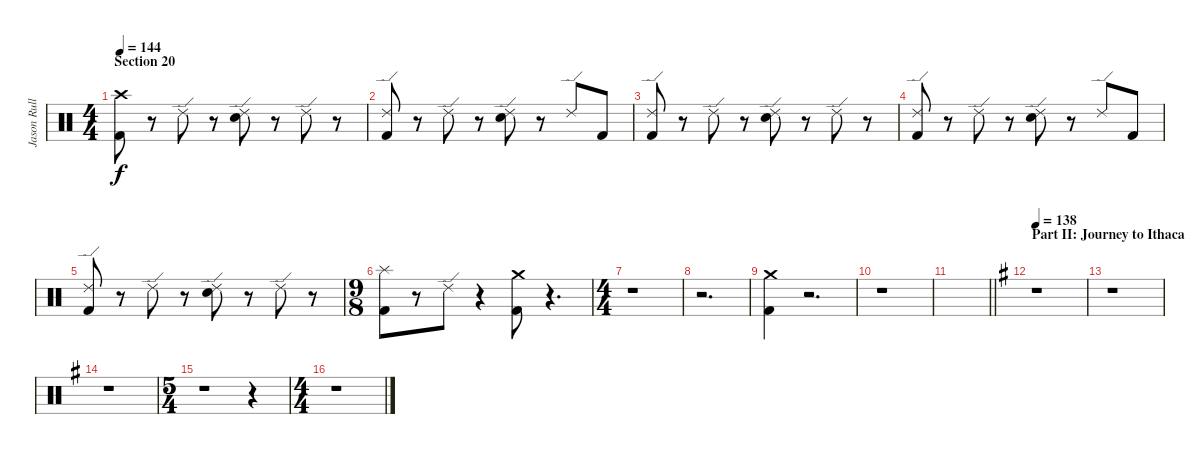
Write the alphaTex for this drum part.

\track ("Jason Rullo (drums)" "Jason Rull") {instrument percussion}
\staff {score}
\articulation defaults
\ts (4 4)
\section ("" "Section 20")
\tempo 144
\clef neutral
\ks aminor
("Crash high (hit)" "Kick (hit) 2").8{dy f} r.8 "Ride (edge) 2".8 r.8 ("Ride (edge) 2" "Electric Snare (hit)").8 r.8 "Ride (edge) 2".8 r.8 |
("Ride (edge) 2" "Kick (hit) 2").8 r.8 "Ride (edge) 2".8 r.8 ("Ride (edge) 2" "Electric Snare (hit)").8 r.8 "Ride (edge) 2".8 "Kick (hit) 2".8 |
("Ride (edge) 2" "Kick (hit) 2").8 r.8 "Ride (edge) 2".8 r.8 ("Ride (edge) 2" "Electric Snare (hit)").8 r.8 "Ride (edge) 2".8 r.8 |
("Ride (edge) 2" "Kick (hit) 2").8 r.8 "Ride (edge) 2".8 r.8 ("Ride (edge) 2" "Electric Snare (hit)").8 r.8 "Ride (edge) 2".8 "Kick (hit) 2".8 |
("Ride (edge) 2" "Kick (hit) 2").8 r.8 "Ride (edge) 2".8 r.8 ("Ride (edge) 2" "Electric Snare (hit)").8 r.8 "Ride (edge) 2".8 r.8 |
\ts (9 8)
("Splash (hit)" "Kick (hit) 2").8{volume 16 balance 8} r.8 "Ride (edge) 2".8 r.4 ("Crash medium (hit)" "Kick (hit) 2").8 r.4{d} |
\ts (4 4)
\ks c
r.1 |
r.2{d} |
\ks aminor
("Crash medium (hit)" "Kick (hit) 2").4{volume 16} r.2{d} |
r.1 |
\barLineRight lightlight
|
\section ("" "Part II: Journey to Ithaca")
\tempo 138
\ks eminor
r.1 |
r.1 |
r.1 |
\ts (5 4)
r.1 r.4 |
\ts (4 4)
r.1
